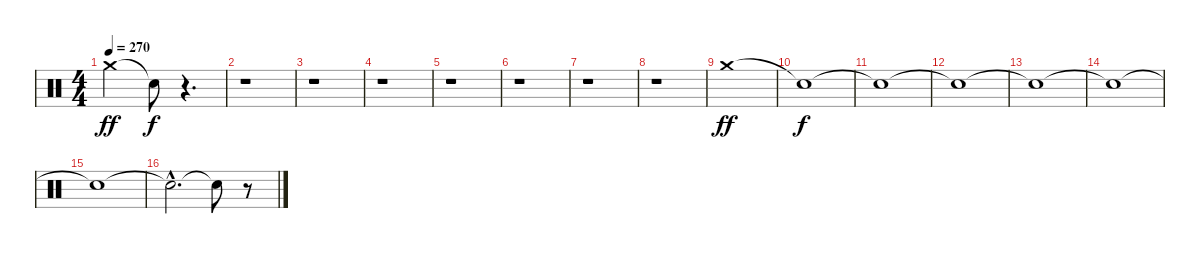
\track "" {instrument percussion}
\staff {score}
\articulation defaults
\ts (4 4)
\tempo 270
\clef neutral
\ks c "Crash medium (hit)".2{dy ff} "Snare (hit)"{t}.8{dy f}
r.4{d} |
r.1 |
r.1 |
r.1 |
r.1 |
r.1 |
r.1 |
r.1 |
"Crash medium (hit)".1{dy ff} |
"Snare (hit)"{t}.1{dy f} |
"Snare (hit)"{t}.1 |
"Snare (hit)"{t}.1 |
"Snare (hit)"{t}.1 |
"Snare (hit)"{t}.1 |
"Snare (hit)"{t}.1 |
"Snare (hit)"{hac t}.2{d} "Snare (hit)"{t}.8 r.8
